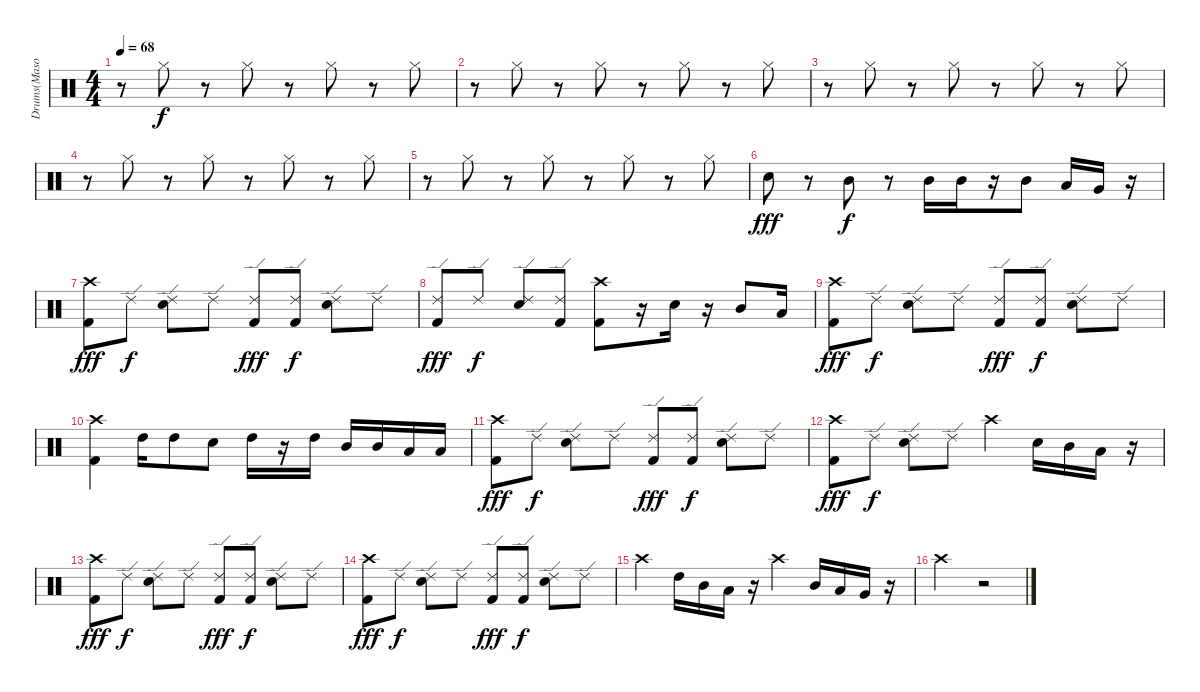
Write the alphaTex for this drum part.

\track ("Drums(Mason)" "Drums(Maso") {instrument percussion}
\staff {score}
\articulation defaults
\ts (4 4)
\tempo 68
\clef neutral
\ks c
r.8{dy f} "Hi-Hat (closed)".8 r.8 "Hi-Hat (closed)".8 r.8 "Hi-Hat (closed)".8 r.8 "Hi-Hat (closed)".8 |
r.8 "Hi-Hat (closed)".8 r.8 "Hi-Hat (closed)".8 r.8 "Hi-Hat (closed)".8 r.8 "Hi-Hat (closed)".8 |
r.8 "Hi-Hat (closed)".8 r.8 "Hi-Hat (closed)".8 r.8 "Hi-Hat (closed)".8 r.8 "Hi-Hat (closed)".8 |
r.8 "Hi-Hat (closed)".8 r.8 "Hi-Hat (closed)".8 r.8 "Hi-Hat (closed)".8 r.8 "Hi-Hat (closed)".8 |
r.8 "Hi-Hat (closed)".8 r.8 "Hi-Hat (closed)".8 r.8 "Hi-Hat (closed)".8 r.8 "Hi-Hat (closed)".8 |
"Electric Snare (hit)".8{dy fff} r.8 "Mid Tom (hit)".8{dy f} r.8 "Mid Tom (hit)".16 "Mid Tom (hit)".16 r.16 "Mid Tom (hit)".8 "Low Tom (hit)".16 "Very Low Tom (hit)".16 r.16 |
("Crash high (hit)" "Kick (hit) 2").8{dy fff} "Ride (edge) 2".8{dy f} ("Ride (edge) 2" "Electric Snare (hit)").8 "Ride (edge) 2".8 ("Ride (edge) 2" "Kick (hit) 2").8{dy fff} ("Ride (edge) 2" "Kick (hit) 2").8{dy f} ("Ride (edge) 2" "Electric Snare (hit)").8 "Ride (edge) 2".8 |
("Ride (edge) 2" "Kick (hit) 2").8{dy fff} "Ride (edge) 2".8{dy f} ("Ride (edge) 2" "Electric Snare (hit)").8 ("Ride (edge) 2" "Kick (hit) 2").8 ("Crash high (hit)" "Kick (hit) 2").8 r.16 "Electric Snare (hit)".16 r.16 "Mid Tom (hit)".8 "Low Tom (hit)".16 |
("Crash high (hit)" "Kick (hit) 2").8{dy fff} "Ride (edge) 2".8{dy f} ("Ride (edge) 2" "Electric Snare (hit)").8 "Ride (edge) 2".8 ("Ride (edge) 2" "Kick (hit) 2").8{dy fff} ("Ride (edge) 2" "Kick (hit) 2").8{dy f} ("Ride (edge) 2" "Electric Snare (hit)").8 "Ride (edge) 2".8 |
("Crash high (hit)" "Kick (hit) 2").4 "High Tom (hit)".16 "High Tom (hit)".8 "Electric Snare (hit)".8 "High Tom (hit)".16 r.16 "High Tom (hit)".16 "Mid Tom (hit)".16 "Mid Tom (hit)".16 "Low Tom (hit)".16 "Low Tom (hit)".16 |
("Crash high (hit)" "Kick (hit) 2").8{dy fff} "Ride (edge) 2".8{dy f} ("Ride (edge) 2" "Electric Snare (hit)").8 "Ride (edge) 2".8 ("Ride (edge) 2" "Kick (hit) 2").8{dy fff} ("Ride (edge) 2" "Kick (hit) 2").8{dy f} ("Ride (edge) 2" "Electric Snare (hit)").8 "Ride (edge) 2".8 |
("Crash high (hit)" "Kick (hit) 2").8{dy fff} "Ride (edge) 2".8{dy f} ("Ride (edge) 2" "Electric Snare (hit)").8 "Ride (edge) 2".8 "Crash high (hit)".4 "Electric Snare (hit)".16 "Mid Tom (hit)".16 "Low Tom (hit)".16 r.16 |
("Crash high (hit)" "Kick (hit) 2").8{dy fff} "Ride (edge) 2".8{dy f} ("Ride (edge) 2" "Electric Snare (hit)").8 "Ride (edge) 2".8 ("Ride (edge) 2" "Kick (hit) 2").8{dy fff} ("Ride (edge) 2" "Kick (hit) 2").8{dy f} ("Ride (edge) 2" "Electric Snare (hit)").8 "Ride (edge) 2".8 |
("Crash high (hit)" "Kick (hit) 2").8{dy fff} "Ride (edge) 2".8{dy f} ("Ride (edge) 2" "Electric Snare (hit)").8 "Ride (edge) 2".8 ("Ride (edge) 2" "Kick (hit) 2").8{dy fff} ("Ride (edge) 2" "Kick (hit) 2").8{dy f} ("Ride (edge) 2" "Electric Snare (hit)").8 "Ride (edge) 2".8 |
"Crash high (hit)".4 "High Tom (hit)".16 "Mid Tom (hit)".16 "Low Tom (hit)".16 r.16 "Crash high (hit)".4 "Mid Tom (hit)".16 "Low Tom (hit)".16 "Very Low Tom (hit)".16 r.16 |
"Crash high (hit)".2 r.2
